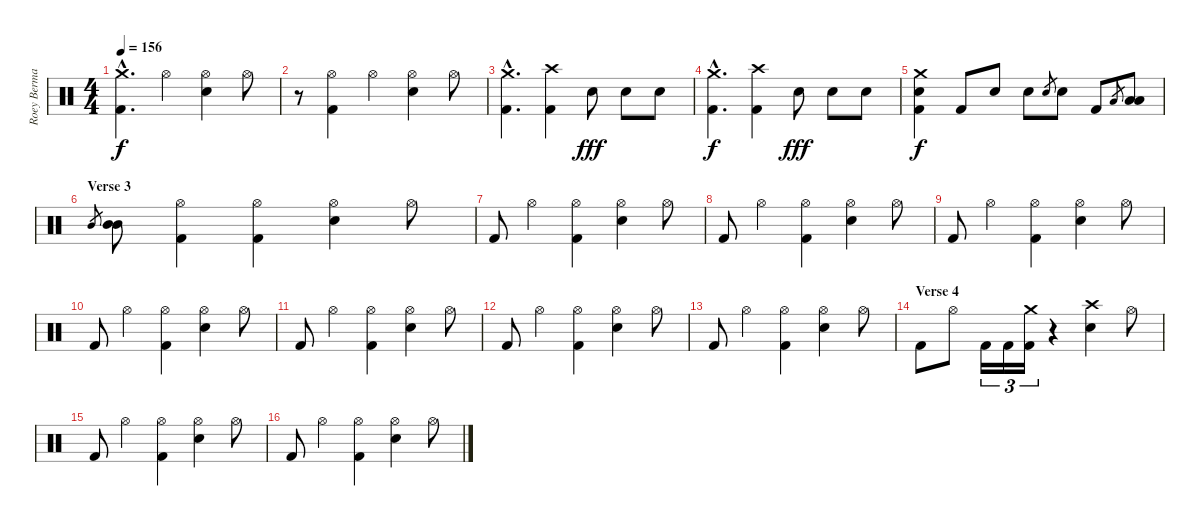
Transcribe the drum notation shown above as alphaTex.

\track ("Roey Berman" "Roey Berma") {instrument percussion}
\staff {score}
\articulation defaults
\ts (4 4)
\tempo 156
\clef neutral
\ks c
("Crash medium (hit)"{hac} "Kick (hit) 2"{hac}).4{d dy f} "Hi-Hat (open)".4 ("Hi-Hat (open)" "Electric Snare (hit)").4 "Hi-Hat (open)".8 |
r.8 ("Hi-Hat (open)" "Kick (hit) 2").4 "Hi-Hat (open)".4 ("Hi-Hat (open)" "Electric Snare (hit)").4 "Hi-Hat (open)".8 |
("Crash medium (hit)"{hac} "Kick (hit) 2"{hac}).4{d} ("Crash high (hit)" "Kick (hit) 2").4 "Electric Snare (hit)".8{dy fff} "Electric Snare (hit)".8 "Electric Snare (hit)".8 |
("Crash medium (hit)"{hac} "Kick (hit) 2"{hac}).4{d dy f} ("Crash high (hit)" "Kick (hit) 2").4 "Electric Snare (hit)".8{dy fff} "Electric Snare (hit)".8 "Electric Snare (hit)".8 |
("Crash medium (hit)" "Electric Snare (hit)" "Kick (hit) 2").4{dy f} "Kick (hit) 2".8 "Electric Snare (hit)".8 "Electric Snare (hit)".8 "Electric Snare (hit)".8{gr} "Electric Snare (hit)".8 "Kick (hit) 2".8 "Low Tom (hit)".8{gr} ("Low Tom (hit)" "Low Tom (hit)").8 |
\section ("" "Verse 3")
"Mid Tom (hit)".8{gr} ("Mid Tom (hit)" "Mid Tom (hit)").8 ("Hi-Hat (open)" "Kick (hit) 2").4 ("Hi-Hat (open)" "Kick (hit) 2").4 ("Hi-Hat (open)" "Electric Snare (hit)").4 "Hi-Hat (open)".8 |
"Kick (hit) 2".8 "Hi-Hat (open)".4 ("Hi-Hat (open)" "Kick (hit) 2").4 ("Hi-Hat (open)" "Electric Snare (hit)").4 "Hi-Hat (open)".8 |
"Kick (hit) 2".8 "Hi-Hat (open)".4 ("Hi-Hat (open)" "Kick (hit) 2").4 ("Hi-Hat (open)" "Electric Snare (hit)").4 "Hi-Hat (open)".8 |
"Kick (hit) 2".8 "Hi-Hat (open)".4 ("Hi-Hat (open)" "Kick (hit) 2").4 ("Hi-Hat (open)" "Electric Snare (hit)").4 "Hi-Hat (open)".8 |
"Kick (hit) 2".8 "Hi-Hat (open)".4 ("Hi-Hat (open)" "Kick (hit) 2").4 ("Hi-Hat (open)" "Electric Snare (hit)").4 "Hi-Hat (open)".8 |
"Kick (hit) 2".8 "Hi-Hat (open)".4 ("Hi-Hat (open)" "Kick (hit) 2").4 ("Hi-Hat (open)" "Electric Snare (hit)").4 "Hi-Hat (open)".8 |
"Kick (hit) 2".8 "Hi-Hat (open)".4 ("Hi-Hat (open)" "Kick (hit) 2").4 ("Hi-Hat (open)" "Electric Snare (hit)").4 "Hi-Hat (open)".8 |
"Kick (hit) 2".8 "Hi-Hat (open)".4 ("Hi-Hat (open)" "Kick (hit) 2").4 ("Hi-Hat (open)" "Electric Snare (hit)").4 "Hi-Hat (open)".8 |
\section ("" "Verse 4")
"Kick (hit) 2".8 "Hi-Hat (open)".8 "Kick (hit) 2".16{tu (3 2)} "Kick (hit) 2".16{tu (3 2)} ("Crash medium (hit)" "Kick (hit) 2").16{tu (3 2)} r.4 ("Crash high (hit)" "Electric Snare (hit)").4 "Hi-Hat (open)".8 |
"Kick (hit) 2".8 "Hi-Hat (open)".4 ("Hi-Hat (open)" "Kick (hit) 2").4 ("Hi-Hat (open)" "Electric Snare (hit)").4 "Hi-Hat (open)".8 |
"Kick (hit) 2".8 "Hi-Hat (open)".4 ("Hi-Hat (open)" "Kick (hit) 2").4 ("Hi-Hat (open)" "Electric Snare (hit)").4 "Hi-Hat (open)".8
